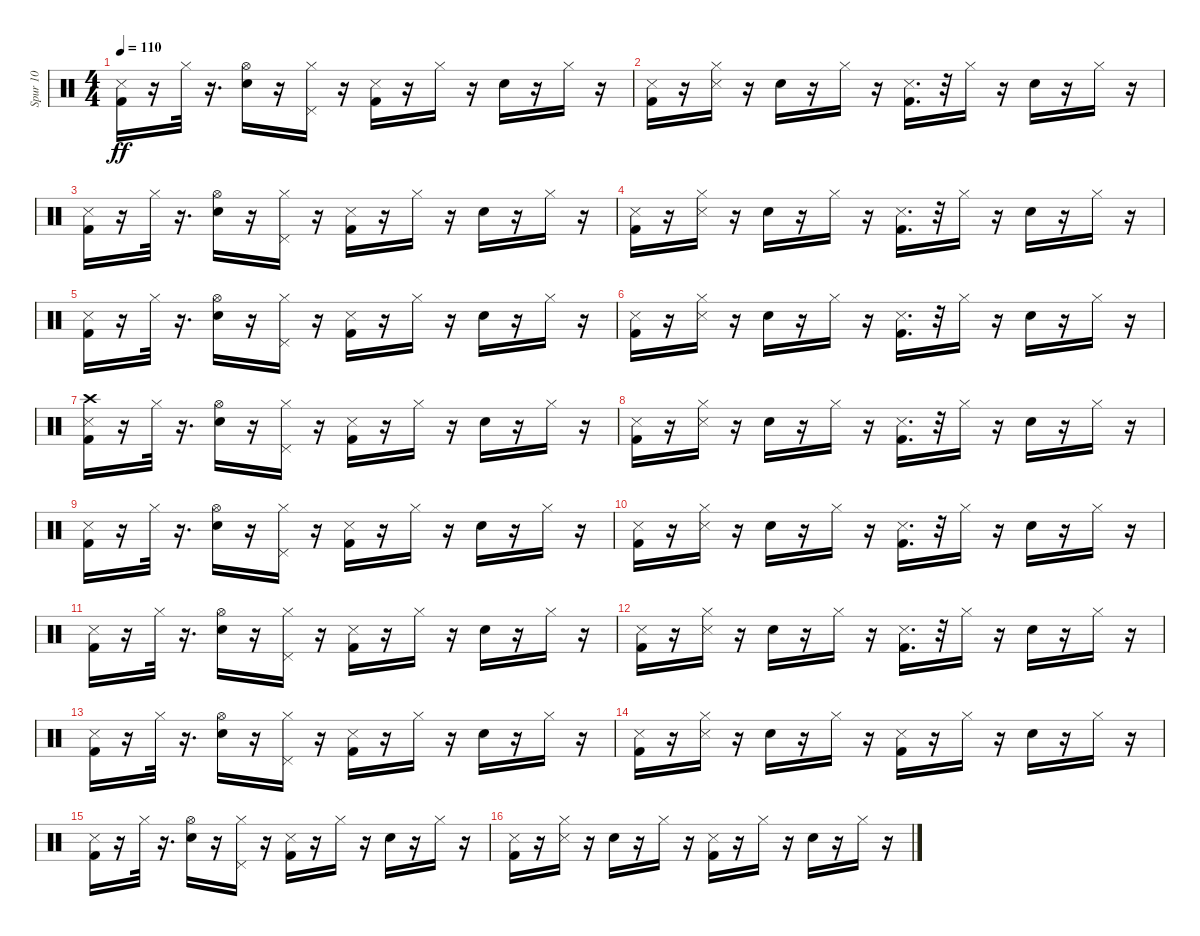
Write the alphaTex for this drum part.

\track ("Spur 10" "Spur 10") {instrument percussion}
\staff {score}
\articulation defaults
\ts (4 4)
\tempo 110
\clef neutral
\ks c
("Kick (hit) 2" "Snare (side stick) 3").16{dy ff} r.16 "Hi-Hat (closed)".32 r.16{d} ("Electric Snare (hit)" "Hi-Hat (open)").16 r.16 ("Hi-Hat (closed)" "Pedal Hi-Hat (hit)").16 r.16 ("Kick (hit) 2" "Snare (side stick) 3").16 r.16 "Hi-Hat (closed)".16 r.16 "Electric Snare (hit)".16 r.16 "Hi-Hat (closed)".16 r.16 |
("Kick (hit) 2" "Snare (side stick) 3").16 r.16 ("Snare (side stick) 3" "Hi-Hat (closed)").16 r.16 "Electric Snare (hit)".16 r.16 "Hi-Hat (closed)".16 r.16 ("Kick (hit) 2" "Snare (side stick) 3").16{d} r.32 "Hi-Hat (closed)".16 r.16 "Electric Snare (hit)".16 r.16 "Hi-Hat (closed)".16 r.16 |
("Kick (hit) 2" "Snare (side stick) 3").16 r.16 "Hi-Hat (closed)".32 r.16{d} ("Electric Snare (hit)" "Hi-Hat (open)").16 r.16 ("Hi-Hat (closed)" "Pedal Hi-Hat (hit)").16 r.16 ("Kick (hit) 2" "Snare (side stick) 3").16 r.16 "Hi-Hat (closed)".16 r.16 "Electric Snare (hit)".16 r.16 "Hi-Hat (closed)".16 r.16 |
("Kick (hit) 2" "Snare (side stick) 3").16 r.16 ("Snare (side stick) 3" "Hi-Hat (closed)").16 r.16 "Electric Snare (hit)".16 r.16 "Hi-Hat (closed)".16 r.16 ("Kick (hit) 2" "Snare (side stick) 3").16{d} r.32 "Hi-Hat (closed)".16 r.16 "Electric Snare (hit)".16 r.16 "Hi-Hat (closed)".16 r.16 |
("Kick (hit) 2" "Snare (side stick) 3").16 r.16 "Hi-Hat (closed)".32 r.16{d} ("Electric Snare (hit)" "Hi-Hat (open)").16 r.16 ("Hi-Hat (closed)" "Pedal Hi-Hat (hit)").16 r.16 ("Kick (hit) 2" "Snare (side stick) 3").16 r.16 "Hi-Hat (closed)".16 r.16 "Electric Snare (hit)".16 r.16 "Hi-Hat (closed)".16 r.16 |
("Kick (hit) 2" "Snare (side stick) 3").16 r.16 ("Snare (side stick) 3" "Hi-Hat (closed)").16 r.16 "Electric Snare (hit)".16 r.16 "Hi-Hat (closed)".16 r.16 ("Kick (hit) 2" "Snare (side stick) 3").16{d} r.32 "Hi-Hat (closed)".16 r.16 "Electric Snare (hit)".16 r.16 "Hi-Hat (closed)".16 r.16 |
("Kick (hit) 2" "Snare (side stick) 3" "Crash high (hit)").16 r.16 "Hi-Hat (closed)".32 r.16{d} ("Electric Snare (hit)" "Hi-Hat (open)").16 r.16 ("Hi-Hat (closed)" "Pedal Hi-Hat (hit)").16 r.16 ("Kick (hit) 2" "Snare (side stick) 3").16 r.16 "Hi-Hat (closed)".16 r.16 "Electric Snare (hit)".16 r.16 "Hi-Hat (closed)".16 r.16 |
("Kick (hit) 2" "Snare (side stick) 3").16 r.16 ("Snare (side stick) 3" "Hi-Hat (closed)").16 r.16 "Electric Snare (hit)".16 r.16 "Hi-Hat (closed)".16 r.16 ("Kick (hit) 2" "Snare (side stick) 3").16{d} r.32 "Hi-Hat (closed)".16 r.16 "Electric Snare (hit)".16 r.16 "Hi-Hat (closed)".16 r.16 |
("Kick (hit) 2" "Snare (side stick) 3").16 r.16 "Hi-Hat (closed)".32 r.16{d} ("Electric Snare (hit)" "Hi-Hat (open)").16 r.16 ("Hi-Hat (closed)" "Pedal Hi-Hat (hit)").16 r.16 ("Kick (hit) 2" "Snare (side stick) 3").16 r.16 "Hi-Hat (closed)".16 r.16 "Electric Snare (hit)".16 r.16 "Hi-Hat (closed)".16 r.16 |
("Kick (hit) 2" "Snare (side stick) 3").16 r.16 ("Snare (side stick) 3" "Hi-Hat (closed)").16 r.16 "Electric Snare (hit)".16 r.16 "Hi-Hat (closed)".16 r.16 ("Kick (hit) 2" "Snare (side stick) 3").16{d} r.32 "Hi-Hat (closed)".16 r.16 "Electric Snare (hit)".16 r.16 "Hi-Hat (closed)".16 r.16 |
("Kick (hit) 2" "Snare (side stick) 3").16 r.16 "Hi-Hat (closed)".32 r.16{d} ("Electric Snare (hit)" "Hi-Hat (open)").16 r.16 ("Hi-Hat (closed)" "Pedal Hi-Hat (hit)").16 r.16 ("Kick (hit) 2" "Snare (side stick) 3").16 r.16 "Hi-Hat (closed)".16 r.16 "Electric Snare (hit)".16 r.16 "Hi-Hat (closed)".16 r.16 |
("Kick (hit) 2" "Snare (side stick) 3").16 r.16 ("Snare (side stick) 3" "Hi-Hat (closed)").16 r.16 "Electric Snare (hit)".16 r.16 "Hi-Hat (closed)".16 r.16 ("Kick (hit) 2" "Snare (side stick) 3").16{d} r.32 "Hi-Hat (closed)".16 r.16 "Electric Snare (hit)".16 r.16 "Hi-Hat (closed)".16 r.16 |
("Kick (hit) 2" "Snare (side stick) 3").16 r.16 "Hi-Hat (closed)".32 r.16{d} ("Electric Snare (hit)" "Hi-Hat (open)").16 r.16 ("Hi-Hat (closed)" "Pedal Hi-Hat (hit)").16 r.16 ("Kick (hit) 2" "Snare (side stick) 3").16 r.16 "Hi-Hat (closed)".16 r.16 "Electric Snare (hit)".16 r.16 "Hi-Hat (closed)".16 r.16 |
("Kick (hit) 2" "Snare (side stick) 3").16 r.16 ("Snare (side stick) 3" "Hi-Hat (closed)").16 r.16 "Electric Snare (hit)".16 r.16 "Hi-Hat (closed)".16 r.16 ("Kick (hit) 2" "Snare (side stick) 3").16 r.16 "Hi-Hat (closed)".16 r.16 "Electric Snare (hit)".16 r.16 "Hi-Hat (closed)".16 r.16 |
("Kick (hit) 2" "Snare (side stick) 3").16 r.16 "Hi-Hat (closed)".32 r.16{d} ("Electric Snare (hit)" "Hi-Hat (open)").16 r.16 ("Hi-Hat (closed)" "Pedal Hi-Hat (hit)").16 r.16 ("Kick (hit) 2" "Snare (side stick) 3").16 r.16 "Hi-Hat (closed)".16 r.16 "Electric Snare (hit)".16 r.16 "Hi-Hat (closed)".16 r.16 |
("Kick (hit) 2" "Snare (side stick) 3").16 r.16 ("Snare (side stick) 3" "Hi-Hat (closed)").16 r.16 "Electric Snare (hit)".16 r.16 "Hi-Hat (closed)".16 r.16 ("Kick (hit) 2" "Snare (side stick) 3").16 r.16 "Hi-Hat (closed)".16 r.16 "Electric Snare (hit)".16 r.16 "Hi-Hat (closed)".16 r.16
